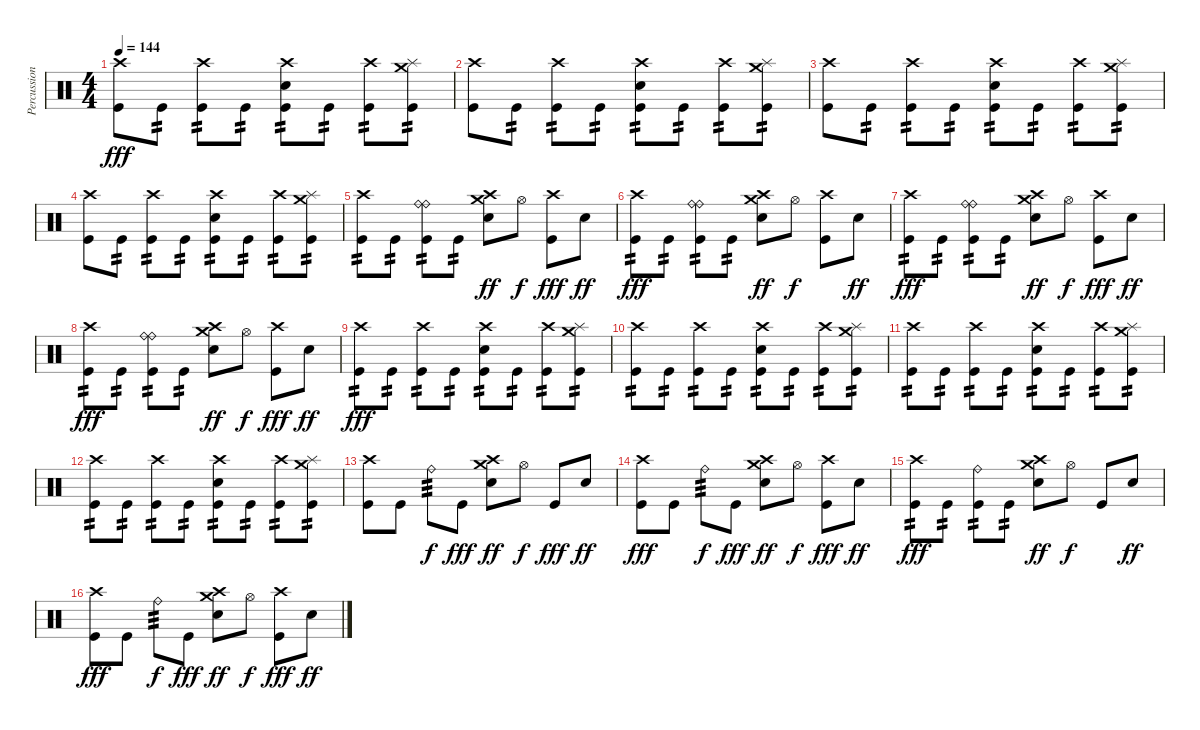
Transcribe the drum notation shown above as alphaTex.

\track ("Percussion" "Percussion") {instrument percussion}
\staff {score}
\articulation defaults
\ts (4 4)
\tempo 144
\clef neutral
\ks c
("Crash high (hit)" "Kick (hit)").8{dy fff} "Kick (hit)".8{tp 2} ("Crash high (hit)" "Kick (hit)").8{tp 2} "Kick (hit)".8{tp 2} ("Crash high (hit)" "Electric Snare (hit)" "Kick (hit)").8{tp 2} "Kick (hit)".8{tp 2} ("Crash high (hit)" "Kick (hit)").8{tp 2} ("Splash (hit)" "Crash medium (hit)" "Kick (hit)").8{tp 2} |
("Crash high (hit)" "Kick (hit)").8 "Kick (hit)".8{tp 2} ("Crash high (hit)" "Kick (hit)").8{tp 2} "Kick (hit)".8{tp 2} ("Crash high (hit)" "Electric Snare (hit)" "Kick (hit)").8{tp 2} "Kick (hit)".8{tp 2} ("Crash high (hit)" "Kick (hit)").8{tp 2} ("Splash (hit)" "Crash medium (hit)" "Kick (hit)").8{tp 2} |
("Crash high (hit)" "Kick (hit)").8 "Kick (hit)".8{tp 2} ("Crash high (hit)" "Kick (hit)").8{tp 2} "Kick (hit)".8{tp 2} ("Crash high (hit)" "Electric Snare (hit)" "Kick (hit)").8{tp 2} "Kick (hit)".8{tp 2} ("Crash high (hit)" "Kick (hit)").8{tp 2} ("Splash (hit)" "Crash medium (hit)" "Kick (hit)").8{tp 2} |
("Crash high (hit)" "Kick (hit)").8 "Kick (hit)".8{tp 2} ("Crash high (hit)" "Kick (hit)").8{tp 2} "Kick (hit)".8{tp 2} ("Crash high (hit)" "Electric Snare (hit)" "Kick (hit)").8{tp 2} "Kick (hit)".8{tp 2} ("Crash high (hit)" "Kick (hit)").8{tp 2} ("Splash (hit)" "Crash medium (hit)" "Kick (hit)").8{tp 2} |
("Crash high (hit)" "Kick (hit)").8{tp 2} "Kick (hit)".8{tp 2} ("Ride (bell)" "Ride (bell)" "Kick (hit)").8{tp 2} "Kick (hit)".8{tp 2} ("Crash medium (hit)" "Crash high (hit)" "Electric Snare (hit)").8{dy ff} "Hi-Hat (open)".8{dy f} ("Crash high (hit)" "Kick (hit)").8{dy fff} "Electric Snare (hit)".8{dy ff} |
("Crash high (hit)" "Kick (hit)").8{tp 2 dy fff} "Kick (hit)".8{tp 2} ("Ride (bell)" "Ride (bell)" "Kick (hit)").8{tp 2} "Kick (hit)".8{tp 2} ("Crash medium (hit)" "Crash high (hit)" "Electric Snare (hit)").8{dy ff} "Hi-Hat (open)".8{dy f} ("Crash high (hit)" "Kick (hit)").8 "Electric Snare (hit)".8{dy ff} |
("Crash high (hit)" "Kick (hit)").8{tp 2 dy fff} "Kick (hit)".8{tp 2} ("Ride (bell)" "Ride (bell)" "Kick (hit)").8{tp 2} "Kick (hit)".8{tp 2} ("Crash medium (hit)" "Crash high (hit)" "Electric Snare (hit)").8{dy ff} "Hi-Hat (open)".8{dy f} ("Crash high (hit)" "Kick (hit)").8{dy fff} "Electric Snare (hit)".8{dy ff} |
("Crash high (hit)" "Kick (hit)").8{tp 2 dy fff} "Kick (hit)".8{tp 2} ("Ride (bell)" "Ride (bell)" "Kick (hit)").8{tp 2} "Kick (hit)".8{tp 2} ("Crash medium (hit)" "Crash high (hit)" "Electric Snare (hit)").8{dy ff} "Hi-Hat (open)".8{dy f} ("Crash high (hit)" "Kick (hit)").8{dy fff} "Electric Snare (hit)".8{dy ff} |
("Crash high (hit)" "Kick (hit)").8{tp 2 dy fff} "Kick (hit)".8{tp 2} ("Crash high (hit)" "Kick (hit)").8{tp 2} "Kick (hit)".8{tp 2} ("Crash high (hit)" "Electric Snare (hit)" "Kick (hit)").8{tp 2} "Kick (hit)".8{tp 2} ("Crash high (hit)" "Kick (hit)").8{tp 2} ("Splash (hit)" "Crash medium (hit)" "Kick (hit)").8{tp 2} |
("Crash high (hit)" "Kick (hit)").8{tp 2} "Kick (hit)".8{tp 2} ("Crash high (hit)" "Kick (hit)").8{tp 2} "Kick (hit)".8{tp 2} ("Crash high (hit)" "Electric Snare (hit)" "Kick (hit)").8{tp 2} "Kick (hit)".8{tp 2} ("Crash high (hit)" "Kick (hit)").8{tp 2} ("Splash (hit)" "Crash medium (hit)" "Kick (hit)").8{tp 2} |
("Crash high (hit)" "Kick (hit)").8{tp 2} "Kick (hit)".8{tp 2} ("Crash high (hit)" "Kick (hit)").8{tp 2} "Kick (hit)".8{tp 2} ("Crash high (hit)" "Electric Snare (hit)" "Kick (hit)").8{tp 2} "Kick (hit)".8{tp 2} ("Crash high (hit)" "Kick (hit)").8{tp 2} ("Splash (hit)" "Crash medium (hit)" "Kick (hit)").8{tp 2} |
("Crash high (hit)" "Kick (hit)").8{tp 2} "Kick (hit)".8{tp 2} ("Crash high (hit)" "Kick (hit)").8{tp 2} "Kick (hit)".8{tp 2} ("Crash high (hit)" "Electric Snare (hit)" "Kick (hit)").8{tp 2} "Kick (hit)".8{tp 2} ("Crash high (hit)" "Kick (hit)").8{tp 2} ("Splash (hit)" "Crash medium (hit)" "Kick (hit)").8{tp 2} |
("Crash high (hit)" "Kick (hit)").8 "Kick (hit)".8 "Ride (bell)".8{tp 3 dy f} "Kick (hit)".8{dy fff} ("Crash medium (hit)" "Crash high (hit)" "Electric Snare (hit)").8{dy ff} "Hi-Hat (open)".8{dy f} "Kick (hit)".8{dy fff} "Electric Snare (hit)".8{dy ff} |
("Crash high (hit)" "Kick (hit)").8{dy fff} "Kick (hit)".8 "Ride (bell)".8{tp 3 dy f} "Kick (hit)".8{dy fff} ("Crash medium (hit)" "Crash high (hit)" "Electric Snare (hit)").8{dy ff} "Hi-Hat (open)".8{dy f} ("Crash high (hit)" "Kick (hit)").8{dy fff} "Electric Snare (hit)".8{dy ff} |
("Crash high (hit)" "Kick (hit)").8{tp 2 dy fff} "Kick (hit)".8{tp 2} ("Ride (bell)" "Kick (hit)").8{tp 2} "Kick (hit)".8{tp 2} ("Crash medium (hit)" "Crash high (hit)" "Electric Snare (hit)").8{dy ff} "Hi-Hat (open)".8{dy f} "Kick (hit)".8 "Electric Snare (hit)".8{dy ff} |
("Crash high (hit)" "Kick (hit)").8{dy fff} "Kick (hit)".8 "Ride (bell)".8{tp 3 dy f} "Kick (hit)".8{dy fff} ("Crash medium (hit)" "Crash high (hit)" "Electric Snare (hit)").8{dy ff} "Hi-Hat (open)".8{dy f} ("Crash high (hit)" "Kick (hit)").8{dy fff} "Electric Snare (hit)".8{dy ff}
